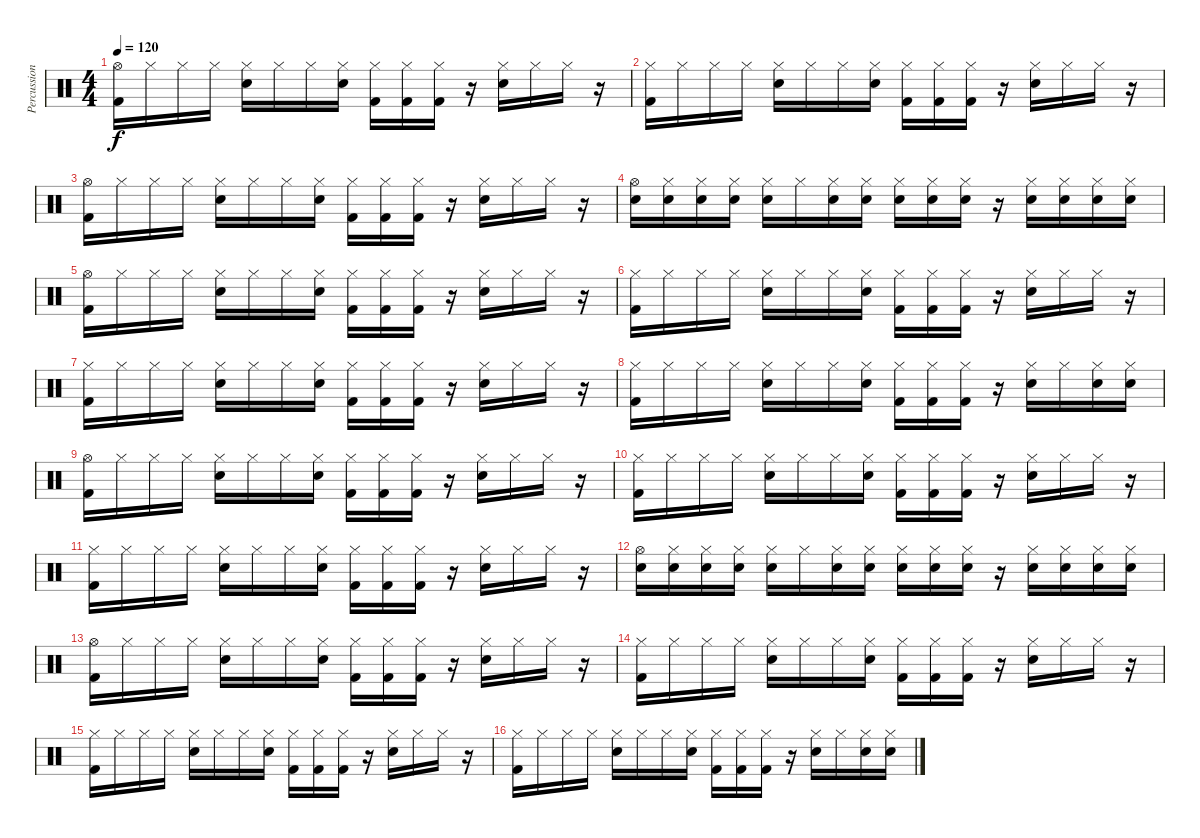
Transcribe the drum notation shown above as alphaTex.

\track ("Percussion" "Percussion") {instrument percussion}
\staff {score}
\articulation defaults
\ts (4 4)
\tempo 120
\clef neutral
\ks c
("Hi-Hat (open)" "Kick (hit) 2").16{dy f} "Hi-Hat (closed)".16 "Hi-Hat (closed)".16 "Hi-Hat (closed)".16 ("Hi-Hat (closed)" "Snare (hit) 2").16 "Hi-Hat (closed)".16 "Hi-Hat (closed)".16 ("Hi-Hat (closed)" "Snare (hit) 2").16 ("Hi-Hat (closed)" "Kick (hit) 2").16 ("Hi-Hat (closed)" "Kick (hit) 2").16 ("Hi-Hat (closed)" "Kick (hit) 2").16 r.16 ("Hi-Hat (closed)" "Snare (hit) 2").16 "Hi-Hat (closed)".16 "Hi-Hat (closed)".16 r.16 |
("Hi-Hat (closed)" "Kick (hit) 2").16 "Hi-Hat (closed)".16 "Hi-Hat (closed)".16 "Hi-Hat (closed)".16 ("Hi-Hat (closed)" "Snare (hit) 2").16 "Hi-Hat (closed)".16 "Hi-Hat (closed)".16 ("Hi-Hat (closed)" "Snare (hit) 2").16 ("Hi-Hat (closed)" "Kick (hit) 2").16 ("Hi-Hat (closed)" "Kick (hit) 2").16 ("Hi-Hat (closed)" "Kick (hit) 2").16 r.16 ("Hi-Hat (closed)" "Snare (hit) 2").16 "Hi-Hat (closed)".16 "Hi-Hat (closed)".16 r.16 |
("Hi-Hat (open)" "Kick (hit) 2").16 "Hi-Hat (closed)".16 "Hi-Hat (closed)".16 "Hi-Hat (closed)".16 ("Hi-Hat (closed)" "Snare (hit) 2").16 "Hi-Hat (closed)".16 "Hi-Hat (closed)".16 ("Hi-Hat (closed)" "Snare (hit) 2").16 ("Hi-Hat (closed)" "Kick (hit) 2").16 ("Hi-Hat (closed)" "Kick (hit) 2").16 ("Hi-Hat (closed)" "Kick (hit) 2").16 r.16 ("Hi-Hat (closed)" "Snare (hit) 2").16 "Hi-Hat (closed)".16 "Hi-Hat (closed)".16 r.16 |
("Hi-Hat (open)" "Snare (hit) 2").16 ("Hi-Hat (closed)" "Snare (hit) 2").16 ("Hi-Hat (closed)" "Snare (hit) 2").16 ("Hi-Hat (closed)" "Snare (hit) 2").16 ("Hi-Hat (closed)" "Snare (hit) 2").16 "Hi-Hat (closed)".16 ("Hi-Hat (closed)" "Snare (hit) 2").16 ("Hi-Hat (closed)" "Snare (hit) 2").16 ("Hi-Hat (closed)" "Snare (hit) 2").16 ("Hi-Hat (closed)" "Snare (hit) 2").16 ("Hi-Hat (closed)" "Snare (hit) 2").16 r.16 ("Hi-Hat (closed)" "Snare (hit) 2").16 ("Hi-Hat (closed)" "Snare (hit) 2").16 ("Hi-Hat (closed)" "Snare (hit) 2").16 ("Hi-Hat (closed)" "Snare (hit) 2").16 |
("Hi-Hat (open)" "Kick (hit) 2").16 "Hi-Hat (closed)".16 "Hi-Hat (closed)".16 "Hi-Hat (closed)".16 ("Hi-Hat (closed)" "Snare (hit) 2").16 "Hi-Hat (closed)".16 "Hi-Hat (closed)".16 ("Hi-Hat (closed)" "Snare (hit) 2").16 ("Hi-Hat (closed)" "Kick (hit) 2").16 ("Hi-Hat (closed)" "Kick (hit) 2").16 ("Hi-Hat (closed)" "Kick (hit) 2").16 r.16 ("Hi-Hat (closed)" "Snare (hit) 2").16 "Hi-Hat (closed)".16 "Hi-Hat (closed)".16 r.16 |
("Hi-Hat (closed)" "Kick (hit) 2").16 "Hi-Hat (closed)".16 "Hi-Hat (closed)".16 "Hi-Hat (closed)".16 ("Hi-Hat (closed)" "Snare (hit) 2").16 "Hi-Hat (closed)".16 "Hi-Hat (closed)".16 ("Hi-Hat (closed)" "Snare (hit) 2").16 ("Hi-Hat (closed)" "Kick (hit) 2").16 ("Hi-Hat (closed)" "Kick (hit) 2").16 ("Hi-Hat (closed)" "Kick (hit) 2").16 r.16 ("Hi-Hat (closed)" "Snare (hit) 2").16 "Hi-Hat (closed)".16 "Hi-Hat (closed)".16 r.16 |
("Hi-Hat (closed)" "Kick (hit) 2").16 "Hi-Hat (closed)".16 "Hi-Hat (closed)".16 "Hi-Hat (closed)".16 ("Hi-Hat (closed)" "Snare (hit) 2").16 "Hi-Hat (closed)".16 "Hi-Hat (closed)".16 ("Hi-Hat (closed)" "Snare (hit) 2").16 ("Hi-Hat (closed)" "Kick (hit) 2").16 ("Hi-Hat (closed)" "Kick (hit) 2").16 ("Hi-Hat (closed)" "Kick (hit) 2").16 r.16 ("Hi-Hat (closed)" "Snare (hit) 2").16 "Hi-Hat (closed)".16 "Hi-Hat (closed)".16 r.16 |
("Hi-Hat (closed)" "Kick (hit) 2").16 "Hi-Hat (closed)".16 "Hi-Hat (closed)".16 "Hi-Hat (closed)".16 ("Hi-Hat (closed)" "Snare (hit) 2").16 "Hi-Hat (closed)".16 "Hi-Hat (closed)".16 ("Hi-Hat (closed)" "Snare (hit) 2").16 ("Hi-Hat (closed)" "Kick (hit) 2").16 ("Hi-Hat (closed)" "Kick (hit) 2").16 ("Hi-Hat (closed)" "Kick (hit) 2").16 r.16 ("Hi-Hat (closed)" "Snare (hit) 2").16 "Hi-Hat (closed)".16 ("Hi-Hat (closed)" "Snare (hit) 2").16 ("Hi-Hat (closed)" "Snare (hit) 2").16 |
("Hi-Hat (open)" "Kick (hit) 2").16 "Hi-Hat (closed)".16 "Hi-Hat (closed)".16 "Hi-Hat (closed)".16 ("Hi-Hat (closed)" "Snare (hit) 2").16 "Hi-Hat (closed)".16 "Hi-Hat (closed)".16 ("Hi-Hat (closed)" "Snare (hit) 2").16 ("Hi-Hat (closed)" "Kick (hit) 2").16 ("Hi-Hat (closed)" "Kick (hit) 2").16 ("Hi-Hat (closed)" "Kick (hit) 2").16 r.16 ("Hi-Hat (closed)" "Snare (hit) 2").16 "Hi-Hat (closed)".16 "Hi-Hat (closed)".16 r.16 |
("Hi-Hat (closed)" "Kick (hit) 2").16 "Hi-Hat (closed)".16 "Hi-Hat (closed)".16 "Hi-Hat (closed)".16 ("Hi-Hat (closed)" "Snare (hit) 2").16 "Hi-Hat (closed)".16 "Hi-Hat (closed)".16 ("Hi-Hat (closed)" "Snare (hit) 2").16 ("Hi-Hat (closed)" "Kick (hit) 2").16 ("Hi-Hat (closed)" "Kick (hit) 2").16 ("Hi-Hat (closed)" "Kick (hit) 2").16 r.16 ("Hi-Hat (closed)" "Snare (hit) 2").16 "Hi-Hat (closed)".16 "Hi-Hat (closed)".16 r.16 |
("Hi-Hat (closed)" "Kick (hit) 2").16 "Hi-Hat (closed)".16 "Hi-Hat (closed)".16 "Hi-Hat (closed)".16 ("Hi-Hat (closed)" "Snare (hit) 2").16 "Hi-Hat (closed)".16 "Hi-Hat (closed)".16 ("Hi-Hat (closed)" "Snare (hit) 2").16 ("Hi-Hat (closed)" "Kick (hit) 2").16 ("Hi-Hat (closed)" "Kick (hit) 2").16 ("Hi-Hat (closed)" "Kick (hit) 2").16 r.16 ("Hi-Hat (closed)" "Snare (hit) 2").16 "Hi-Hat (closed)".16 "Hi-Hat (closed)".16 r.16 |
("Hi-Hat (open)" "Snare (hit) 2").16 ("Hi-Hat (closed)" "Snare (hit) 2").16 ("Hi-Hat (closed)" "Snare (hit) 2").16 ("Hi-Hat (closed)" "Snare (hit) 2").16 ("Hi-Hat (closed)" "Snare (hit) 2").16 "Hi-Hat (closed)".16 ("Hi-Hat (closed)" "Snare (hit) 2").16 ("Hi-Hat (closed)" "Snare (hit) 2").16 ("Hi-Hat (closed)" "Snare (hit) 2").16 ("Hi-Hat (closed)" "Snare (hit) 2").16 ("Hi-Hat (closed)" "Snare (hit) 2").16 r.16 ("Hi-Hat (closed)" "Snare (hit) 2").16 ("Hi-Hat (closed)" "Snare (hit) 2").16 ("Hi-Hat (closed)" "Snare (hit) 2").16 ("Hi-Hat (closed)" "Snare (hit) 2").16 |
("Hi-Hat (open)" "Kick (hit) 2").16 "Hi-Hat (closed)".16 "Hi-Hat (closed)".16 "Hi-Hat (closed)".16 ("Hi-Hat (closed)" "Snare (hit) 2").16 "Hi-Hat (closed)".16 "Hi-Hat (closed)".16 ("Hi-Hat (closed)" "Snare (hit) 2").16 ("Hi-Hat (closed)" "Kick (hit) 2").16 ("Hi-Hat (closed)" "Kick (hit) 2").16 ("Hi-Hat (closed)" "Kick (hit) 2").16 r.16 ("Hi-Hat (closed)" "Snare (hit) 2").16 "Hi-Hat (closed)".16 "Hi-Hat (closed)".16 r.16 |
("Hi-Hat (closed)" "Kick (hit) 2").16 "Hi-Hat (closed)".16 "Hi-Hat (closed)".16 "Hi-Hat (closed)".16 ("Hi-Hat (closed)" "Snare (hit) 2").16 "Hi-Hat (closed)".16 "Hi-Hat (closed)".16 ("Hi-Hat (closed)" "Snare (hit) 2").16 ("Hi-Hat (closed)" "Kick (hit) 2").16 ("Hi-Hat (closed)" "Kick (hit) 2").16 ("Hi-Hat (closed)" "Kick (hit) 2").16 r.16 ("Hi-Hat (closed)" "Snare (hit) 2").16 "Hi-Hat (closed)".16 "Hi-Hat (closed)".16 r.16 |
("Hi-Hat (closed)" "Kick (hit) 2").16 "Hi-Hat (closed)".16 "Hi-Hat (closed)".16 "Hi-Hat (closed)".16 ("Hi-Hat (closed)" "Snare (hit) 2").16 "Hi-Hat (closed)".16 "Hi-Hat (closed)".16 ("Hi-Hat (closed)" "Snare (hit) 2").16 ("Hi-Hat (closed)" "Kick (hit) 2").16 ("Hi-Hat (closed)" "Kick (hit) 2").16 ("Hi-Hat (closed)" "Kick (hit) 2").16 r.16 ("Hi-Hat (closed)" "Snare (hit) 2").16 "Hi-Hat (closed)".16 "Hi-Hat (closed)".16 r.16 |
("Hi-Hat (closed)" "Kick (hit) 2").16 "Hi-Hat (closed)".16 "Hi-Hat (closed)".16 "Hi-Hat (closed)".16 ("Hi-Hat (closed)" "Snare (hit) 2").16 "Hi-Hat (closed)".16 "Hi-Hat (closed)".16 ("Hi-Hat (closed)" "Snare (hit) 2").16 ("Hi-Hat (closed)" "Kick (hit) 2").16 ("Hi-Hat (closed)" "Kick (hit) 2").16 ("Hi-Hat (closed)" "Kick (hit) 2").16 r.16 ("Hi-Hat (closed)" "Snare (hit) 2").16 "Hi-Hat (closed)".16 ("Hi-Hat (closed)" "Snare (hit) 2").16 ("Hi-Hat (closed)" "Snare (hit) 2").16
